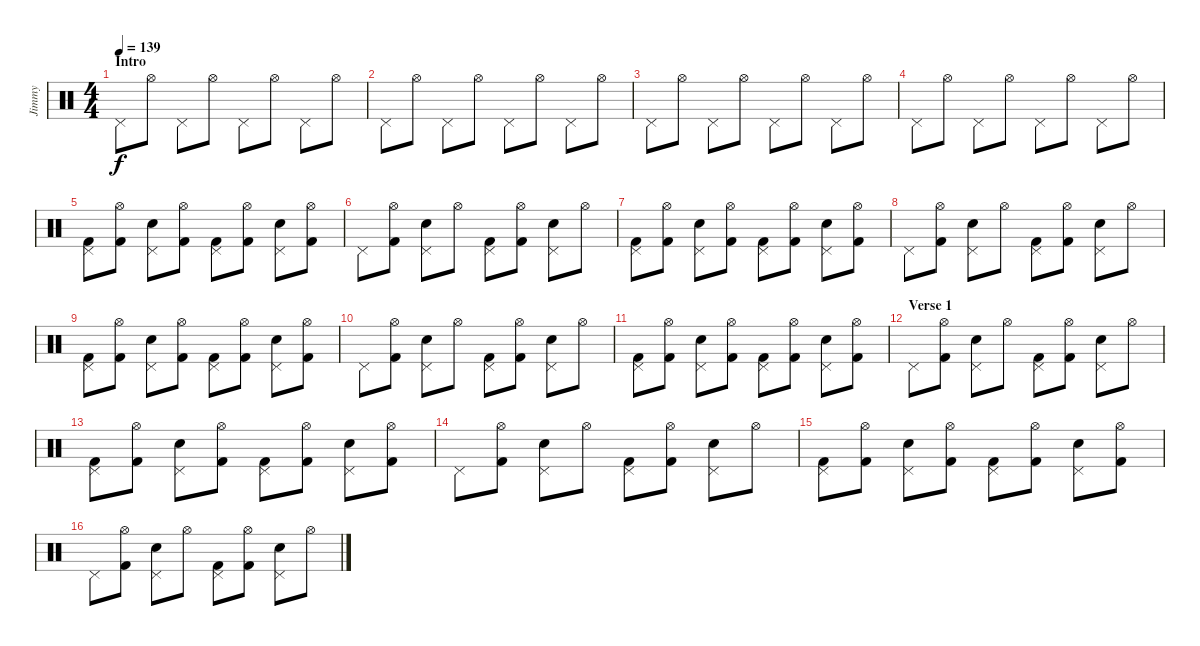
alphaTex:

\track ("Jimmy" "Jimmy") {instrument percussion}
\staff {score}
\articulation defaults
\ts (4 4)
\section ("" "Intro")
\tempo 139
\clef neutral
\ks c "Pedal Hi-Hat (hit)".8{dy f} "Hi-Hat (open)".8 "Pedal Hi-Hat (hit)".8 "Hi-Hat (open)".8 "Pedal Hi-Hat (hit)".8 "Hi-Hat (open)".8 "Pedal Hi-Hat (hit)".8 "Hi-Hat (open)".8
|
"Pedal Hi-Hat (hit)".8 "Hi-Hat (open)".8 "Pedal Hi-Hat (hit)".8 "Hi-Hat (open)".8 "Pedal Hi-Hat (hit)".8 "Hi-Hat (open)".8 "Pedal Hi-Hat (hit)".8 "Hi-Hat (open)".8 |
"Pedal Hi-Hat (hit)".8 "Hi-Hat (open)".8 "Pedal Hi-Hat (hit)".8 "Hi-Hat (open)".8 "Pedal Hi-Hat (hit)".8 "Hi-Hat (open)".8 "Pedal Hi-Hat (hit)".8 "Hi-Hat (open)".8 |
"Pedal Hi-Hat (hit)".8 "Hi-Hat (open)".8 "Pedal Hi-Hat (hit)".8 "Hi-Hat (open)".8 "Pedal Hi-Hat (hit)".8 "Hi-Hat (open)".8 "Pedal Hi-Hat (hit)".8 "Hi-Hat (open)".8 |
("Pedal Hi-Hat (hit)" "Kick (hit) 2").8 ("Hi-Hat (open)" "Kick (hit) 2").8 ("Pedal Hi-Hat (hit)" "Snare (hit) 2").8 ("Hi-Hat (open)" "Kick (hit) 2").8 ("Pedal Hi-Hat (hit)" "Kick (hit) 2").8 ("Hi-Hat (open)" "Kick (hit) 2").8 ("Pedal Hi-Hat (hit)" "Snare (hit) 2").8 ("Hi-Hat (open)" "Kick (hit) 2").8 |
"Pedal Hi-Hat (hit)".8 ("Hi-Hat (open)" "Kick (hit) 2").8 ("Pedal Hi-Hat (hit)" "Snare (hit) 2").8 "Hi-Hat (open)".8 ("Pedal Hi-Hat (hit)" "Kick (hit) 2").8 ("Hi-Hat (open)" "Kick (hit) 2").8 ("Pedal Hi-Hat (hit)" "Snare (hit) 2").8 "Hi-Hat (open)".8 |
("Pedal Hi-Hat (hit)" "Kick (hit) 2").8 ("Hi-Hat (open)" "Kick (hit) 2").8 ("Pedal Hi-Hat (hit)" "Snare (hit) 2").8 ("Hi-Hat (open)" "Kick (hit) 2").8 ("Pedal Hi-Hat (hit)" "Kick (hit) 2").8 ("Hi-Hat (open)" "Kick (hit) 2").8 ("Pedal Hi-Hat (hit)" "Snare (hit) 2").8 ("Hi-Hat (open)" "Kick (hit) 2").8 |
"Pedal Hi-Hat (hit)".8 ("Hi-Hat (open)" "Kick (hit) 2").8 ("Pedal Hi-Hat (hit)" "Snare (hit) 2").8 "Hi-Hat (open)".8 ("Pedal Hi-Hat (hit)" "Kick (hit) 2").8 ("Hi-Hat (open)" "Kick (hit) 2").8 ("Pedal Hi-Hat (hit)" "Snare (hit) 2").8 "Hi-Hat (open)".8 |
("Pedal Hi-Hat (hit)" "Kick (hit) 2").8 ("Hi-Hat (open)" "Kick (hit) 2").8 ("Pedal Hi-Hat (hit)" "Snare (hit) 2").8 ("Hi-Hat (open)" "Kick (hit) 2").8 ("Pedal Hi-Hat (hit)" "Kick (hit) 2").8 ("Hi-Hat (open)" "Kick (hit) 2").8 ("Pedal Hi-Hat (hit)" "Snare (hit) 2").8 ("Hi-Hat (open)" "Kick (hit) 2").8 |
"Pedal Hi-Hat (hit)".8 ("Hi-Hat (open)" "Kick (hit) 2").8 ("Pedal Hi-Hat (hit)" "Snare (hit) 2").8 "Hi-Hat (open)".8 ("Pedal Hi-Hat (hit)" "Kick (hit) 2").8 ("Hi-Hat (open)" "Kick (hit) 2").8 ("Pedal Hi-Hat (hit)" "Snare (hit) 2").8 "Hi-Hat (open)".8 |
("Pedal Hi-Hat (hit)" "Kick (hit) 2").8 ("Hi-Hat (open)" "Kick (hit) 2").8 ("Pedal Hi-Hat (hit)" "Snare (hit) 2").8 ("Hi-Hat (open)" "Kick (hit) 2").8 ("Pedal Hi-Hat (hit)" "Kick (hit) 2").8 ("Hi-Hat (open)" "Kick (hit) 2").8 ("Pedal Hi-Hat (hit)" "Snare (hit) 2").8 ("Hi-Hat (open)" "Kick (hit) 2").8 |
\section ("" "Verse 1")
"Pedal Hi-Hat (hit)".8 ("Hi-Hat (open)" "Kick (hit) 2").8 ("Pedal Hi-Hat (hit)" "Snare (hit) 2").8 "Hi-Hat (open)".8 ("Pedal Hi-Hat (hit)" "Kick (hit) 2").8 ("Hi-Hat (open)" "Kick (hit) 2").8 ("Pedal Hi-Hat (hit)" "Snare (hit) 2").8 "Hi-Hat (open)".8 |
("Pedal Hi-Hat (hit)" "Kick (hit) 2").8 ("Hi-Hat (open)" "Kick (hit) 2").8 ("Pedal Hi-Hat (hit)" "Snare (hit) 2").8 ("Hi-Hat (open)" "Kick (hit) 2").8 ("Pedal Hi-Hat (hit)" "Kick (hit) 2").8 ("Hi-Hat (open)" "Kick (hit) 2").8 ("Pedal Hi-Hat (hit)" "Snare (hit) 2").8 ("Hi-Hat (open)" "Kick (hit) 2").8 |
"Pedal Hi-Hat (hit)".8 ("Hi-Hat (open)" "Kick (hit) 2").8 ("Pedal Hi-Hat (hit)" "Snare (hit) 2").8 "Hi-Hat (open)".8 ("Pedal Hi-Hat (hit)" "Kick (hit) 2").8 ("Hi-Hat (open)" "Kick (hit) 2").8 ("Pedal Hi-Hat (hit)" "Snare (hit) 2").8 "Hi-Hat (open)".8 |
("Pedal Hi-Hat (hit)" "Kick (hit) 2").8 ("Hi-Hat (open)" "Kick (hit) 2").8 ("Pedal Hi-Hat (hit)" "Snare (hit) 2").8 ("Hi-Hat (open)" "Kick (hit) 2").8 ("Pedal Hi-Hat (hit)" "Kick (hit) 2").8 ("Hi-Hat (open)" "Kick (hit) 2").8 ("Pedal Hi-Hat (hit)" "Snare (hit) 2").8 ("Hi-Hat (open)" "Kick (hit) 2").8 |
"Pedal Hi-Hat (hit)".8 ("Hi-Hat (open)" "Kick (hit) 2").8 ("Pedal Hi-Hat (hit)" "Snare (hit) 2").8 "Hi-Hat (open)".8 ("Pedal Hi-Hat (hit)" "Kick (hit) 2").8 ("Hi-Hat (open)" "Kick (hit) 2").8 ("Pedal Hi-Hat (hit)" "Snare (hit) 2").8 "Hi-Hat (open)".8
